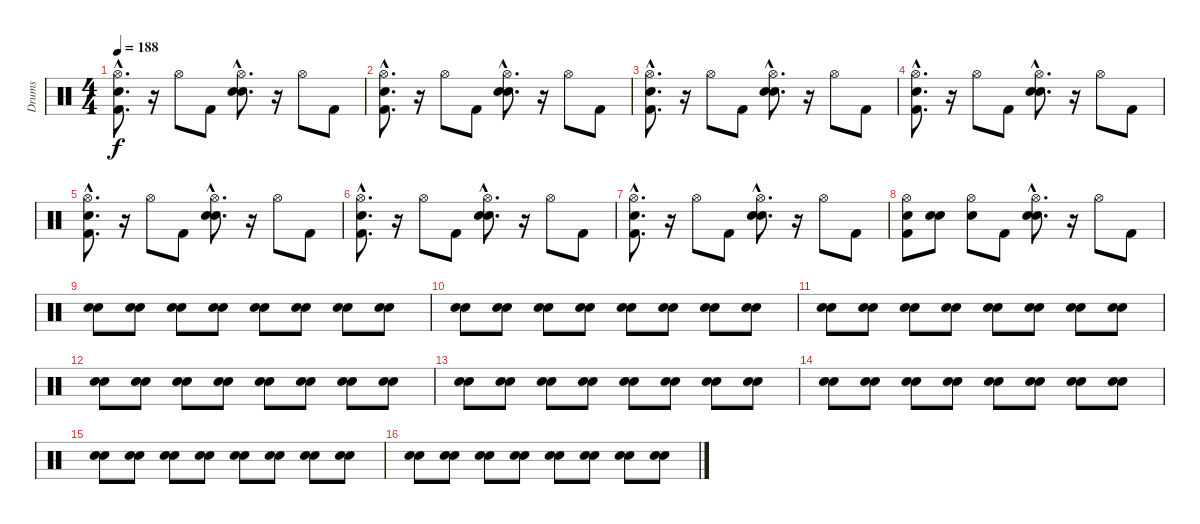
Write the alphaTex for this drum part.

\track ("Drums" "Drums") {instrument percussion}
\staff {score}
\articulation defaults
\ts (4 4)
\tempo 188
\clef neutral
\ks c
("Snare (hit)"{hac} "Kick (hit) 2"{hac} "Hi-Hat (open)"{hac}).8{d dy f} r.16 "Hi-Hat (open)".8 "Kick (hit) 2".8 ("Snare (hit)"{hac} "Snare (hit) 2"{hac} "Hi-Hat (open)"{hac}).8{d} r.16 "Hi-Hat (open)".8 "Kick (hit) 2".8 |
("Snare (hit)"{hac} "Kick (hit) 2"{hac} "Hi-Hat (open)"{hac}).8{d} r.16 "Hi-Hat (open)".8 "Kick (hit) 2".8 ("Snare (hit)"{hac} "Snare (hit) 2"{hac} "Hi-Hat (open)"{hac}).8{d} r.16 "Hi-Hat (open)".8 "Kick (hit) 2".8 |
("Snare (hit)"{hac} "Kick (hit) 2"{hac} "Hi-Hat (open)"{hac}).8{d} r.16 "Hi-Hat (open)".8 "Kick (hit) 2".8 ("Snare (hit)"{hac} "Snare (hit) 2"{hac} "Hi-Hat (open)"{hac}).8{d} r.16 "Hi-Hat (open)".8 "Kick (hit) 2".8 |
("Snare (hit)"{hac} "Kick (hit) 2"{hac} "Hi-Hat (open)"{hac}).8{d} r.16 "Hi-Hat (open)".8 "Kick (hit) 2".8 ("Snare (hit)"{hac} "Snare (hit) 2"{hac} "Hi-Hat (open)"{hac}).8{d} r.16 "Hi-Hat (open)".8 "Kick (hit) 2".8 |
("Snare (hit)"{hac} "Kick (hit) 2"{hac} "Hi-Hat (open)"{hac}).8{d} r.16 "Hi-Hat (open)".8 "Kick (hit) 2".8 ("Snare (hit)"{hac} "Snare (hit) 2"{hac} "Hi-Hat (open)"{hac}).8{d} r.16 "Hi-Hat (open)".8 "Kick (hit) 2".8 |
("Snare (hit)"{hac} "Kick (hit) 2"{hac} "Hi-Hat (open)"{hac}).8{d} r.16 "Hi-Hat (open)".8 "Kick (hit) 2".8 ("Snare (hit)"{hac} "Snare (hit) 2"{hac} "Hi-Hat (open)"{hac}).8{d} r.16 "Hi-Hat (open)".8 "Kick (hit) 2".8 |
("Snare (hit)"{hac} "Kick (hit) 2"{hac} "Hi-Hat (open)"{hac}).8{d} r.16 "Hi-Hat (open)".8 "Kick (hit) 2".8 ("Snare (hit)"{hac} "Snare (hit) 2"{hac} "Hi-Hat (open)"{hac}).8{d} r.16 "Hi-Hat (open)".8 "Kick (hit) 2".8 |
("Snare (hit)" "Kick (hit) 2" "Hi-Hat (open)").8 ("Snare (hit)" "Snare (hit) 2").8 ("Snare (hit)" "Hi-Hat (open)").8 "Kick (hit) 2".8 ("Snare (hit)"{hac} "Snare (hit) 2"{hac} "Hi-Hat (open)"{hac}).8{d} r.16 "Hi-Hat (open)".8 "Kick (hit) 2".8 |
("Snare (hit)" "Snare (hit) 2").8 ("Snare (hit)" "Snare (hit) 2").8 ("Snare (hit)" "Snare (hit) 2").8 ("Snare (hit)" "Snare (hit) 2").8 ("Snare (hit)" "Snare (hit) 2").8 ("Snare (hit)" "Snare (hit) 2").8 ("Snare (hit)" "Snare (hit) 2").8 ("Snare (hit)" "Snare (hit) 2").8 |
("Snare (hit)" "Snare (hit) 2").8 ("Snare (hit)" "Snare (hit) 2").8 ("Snare (hit)" "Snare (hit) 2").8 ("Snare (hit)" "Snare (hit) 2").8 ("Snare (hit)" "Snare (hit) 2").8 ("Snare (hit)" "Snare (hit) 2").8 ("Snare (hit)" "Snare (hit) 2").8 ("Snare (hit)" "Snare (hit) 2").8 |
("Snare (hit)" "Snare (hit) 2").8 ("Snare (hit)" "Snare (hit) 2").8 ("Snare (hit)" "Snare (hit) 2").8 ("Snare (hit)" "Snare (hit) 2").8 ("Snare (hit)" "Snare (hit) 2").8 ("Snare (hit)" "Snare (hit) 2").8 ("Snare (hit)" "Snare (hit) 2").8 ("Snare (hit)" "Snare (hit) 2").8 |
("Snare (hit)" "Snare (hit) 2").8 ("Snare (hit)" "Snare (hit) 2").8 ("Snare (hit)" "Snare (hit) 2").8 ("Snare (hit)" "Snare (hit) 2").8 ("Snare (hit)" "Snare (hit) 2").8 ("Snare (hit)" "Snare (hit) 2").8 ("Snare (hit)" "Snare (hit) 2").8 ("Snare (hit)" "Snare (hit) 2").8 |
("Snare (hit)" "Snare (hit) 2").8 ("Snare (hit)" "Snare (hit) 2").8 ("Snare (hit)" "Snare (hit) 2").8 ("Snare (hit)" "Snare (hit) 2").8 ("Snare (hit)" "Snare (hit) 2").8 ("Snare (hit)" "Snare (hit) 2").8 ("Snare (hit)" "Snare (hit) 2").8 ("Snare (hit)" "Snare (hit) 2").8 |
("Snare (hit)" "Snare (hit) 2").8 ("Snare (hit)" "Snare (hit) 2").8 ("Snare (hit)" "Snare (hit) 2").8 ("Snare (hit)" "Snare (hit) 2").8 ("Snare (hit)" "Snare (hit) 2").8 ("Snare (hit)" "Snare (hit) 2").8 ("Snare (hit)" "Snare (hit) 2").8 ("Snare (hit)" "Snare (hit) 2").8 |
("Snare (hit)" "Snare (hit) 2").8 ("Snare (hit)" "Snare (hit) 2").8 ("Snare (hit)" "Snare (hit) 2").8 ("Snare (hit)" "Snare (hit) 2").8 ("Snare (hit)" "Snare (hit) 2").8 ("Snare (hit)" "Snare (hit) 2").8 ("Snare (hit)" "Snare (hit) 2").8 ("Snare (hit)" "Snare (hit) 2").8 |
("Snare (hit)" "Snare (hit) 2").8 ("Snare (hit)" "Snare (hit) 2").8 ("Snare (hit)" "Snare (hit) 2").8 ("Snare (hit)" "Snare (hit) 2").8 ("Snare (hit)" "Snare (hit) 2").8 ("Snare (hit)" "Snare (hit) 2").8 ("Snare (hit)" "Snare (hit) 2").8 ("Snare (hit)" "Snare (hit) 2").8
